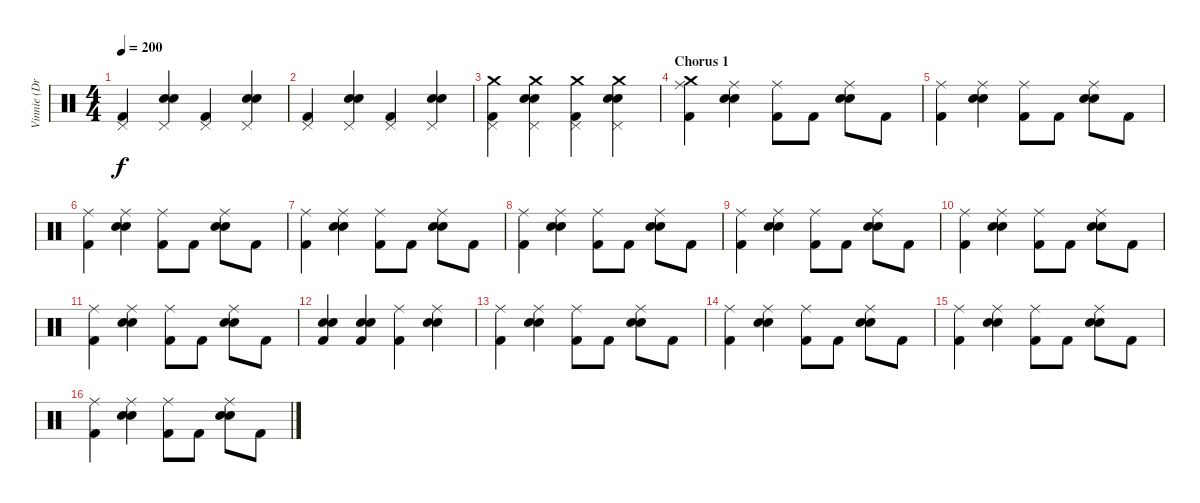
\track ("Vinnie (Drums)" "Vinnie (Dr") {instrument percussion}
\staff {score}
\articulation defaults
\ts (4 4)
\tempo 200
\clef neutral
\ks c
("Kick (hit) 2" "Pedal Hi-Hat (hit)").4{dy f} ("Snare (hit) 2" "Electric Snare (hit)" "Pedal Hi-Hat (hit)").4 ("Kick (hit) 2" "Pedal Hi-Hat (hit)").4 ("Snare (hit) 2" "Electric Snare (hit)" "Pedal Hi-Hat (hit)").4 |
("Kick (hit) 2" "Pedal Hi-Hat (hit)").4 ("Snare (hit) 2" "Electric Snare (hit)" "Pedal Hi-Hat (hit)").4 ("Kick (hit) 2" "Pedal Hi-Hat (hit)").4 ("Snare (hit) 2" "Electric Snare (hit)" "Pedal Hi-Hat (hit)").4 |
("Kick (hit) 2" "Pedal Hi-Hat (hit)" "Crash medium (hit)").4 ("Snare (hit) 2" "Electric Snare (hit)" "Pedal Hi-Hat (hit)" "Crash medium (hit)").4 ("Kick (hit) 2" "Pedal Hi-Hat (hit)" "Crash medium (hit)").4 ("Snare (hit) 2" "Electric Snare (hit)" "Pedal Hi-Hat (hit)" "Crash medium (hit)").4 |
\section ("" "Chorus 1")
("Kick (hit) 2" "Ride (middle)" "Crash medium (hit)").4 ("Snare (hit) 2" "Electric Snare (hit)" "Ride (middle)").4 ("Kick (hit) 2" "Ride (middle)").8 "Kick (hit) 2".8 ("Snare (hit) 2" "Electric Snare (hit)" "Ride (middle)").8 "Kick (hit) 2".8 |
("Kick (hit) 2" "Ride (middle)").4 ("Snare (hit) 2" "Electric Snare (hit)" "Ride (middle)").4 ("Kick (hit) 2" "Ride (middle)").8 "Kick (hit) 2".8 ("Snare (hit) 2" "Electric Snare (hit)" "Ride (middle)").8 "Kick (hit) 2".8 |
("Kick (hit) 2" "Ride (middle)").4 ("Snare (hit) 2" "Electric Snare (hit)" "Ride (middle)").4 ("Kick (hit) 2" "Ride (middle)").8 "Kick (hit) 2".8 ("Snare (hit) 2" "Electric Snare (hit)" "Ride (middle)").8 "Kick (hit) 2".8 |
("Kick (hit) 2" "Ride (middle)").4 ("Snare (hit) 2" "Electric Snare (hit)" "Ride (middle)").4 ("Kick (hit) 2" "Ride (middle)").8 "Kick (hit) 2".8 ("Snare (hit) 2" "Electric Snare (hit)" "Ride (middle)").8 "Kick (hit) 2".8 |
("Kick (hit) 2" "Ride (middle)").4 ("Snare (hit) 2" "Electric Snare (hit)" "Ride (middle)").4 ("Kick (hit) 2" "Ride (middle)").8 "Kick (hit) 2".8 ("Snare (hit) 2" "Electric Snare (hit)" "Ride (middle)").8 "Kick (hit) 2".8 |
("Kick (hit) 2" "Ride (middle)").4 ("Snare (hit) 2" "Electric Snare (hit)" "Ride (middle)").4 ("Kick (hit) 2" "Ride (middle)").8 "Kick (hit) 2".8 ("Snare (hit) 2" "Electric Snare (hit)" "Ride (middle)").8 "Kick (hit) 2".8 |
("Kick (hit) 2" "Ride (middle)").4 ("Snare (hit) 2" "Electric Snare (hit)" "Ride (middle)").4 ("Kick (hit) 2" "Ride (middle)").8 "Kick (hit) 2".8 ("Snare (hit) 2" "Electric Snare (hit)" "Ride (middle)").8 "Kick (hit) 2".8 |
("Kick (hit) 2" "Ride (middle)").4 ("Snare (hit) 2" "Electric Snare (hit)" "Ride (middle)").4 ("Kick (hit) 2" "Ride (middle)").8 "Kick (hit) 2".8 ("Snare (hit) 2" "Electric Snare (hit)" "Ride (middle)").8 "Kick (hit) 2".8 |
("Kick (hit) 2" "Electric Snare (hit)" "Snare (hit) 2").4 ("Snare (hit) 2" "Electric Snare (hit)" "Kick (hit) 2").4 ("Kick (hit) 2" "Ride (middle)").4 ("Snare (hit) 2" "Electric Snare (hit)" "Ride (middle)").4 |
("Kick (hit) 2" "Ride (middle)").4 ("Snare (hit) 2" "Electric Snare (hit)" "Ride (middle)").4 ("Kick (hit) 2" "Ride (middle)").8 "Kick (hit) 2".8 ("Snare (hit) 2" "Electric Snare (hit)" "Ride (middle)").8 "Kick (hit) 2".8 |
("Kick (hit) 2" "Ride (middle)").4 ("Snare (hit) 2" "Electric Snare (hit)" "Ride (middle)").4 ("Kick (hit) 2" "Ride (middle)").8 "Kick (hit) 2".8 ("Snare (hit) 2" "Electric Snare (hit)" "Ride (middle)").8 "Kick (hit) 2".8 |
("Kick (hit) 2" "Ride (middle)").4 ("Snare (hit) 2" "Electric Snare (hit)" "Ride (middle)").4 ("Kick (hit) 2" "Ride (middle)").8 "Kick (hit) 2".8 ("Snare (hit) 2" "Electric Snare (hit)" "Ride (middle)").8 "Kick (hit) 2".8 |
("Kick (hit) 2" "Ride (middle)").4 ("Snare (hit) 2" "Electric Snare (hit)" "Ride (middle)").4 ("Kick (hit) 2" "Ride (middle)").8 "Kick (hit) 2".8 ("Snare (hit) 2" "Electric Snare (hit)" "Ride (middle)").8 "Kick (hit) 2".8
